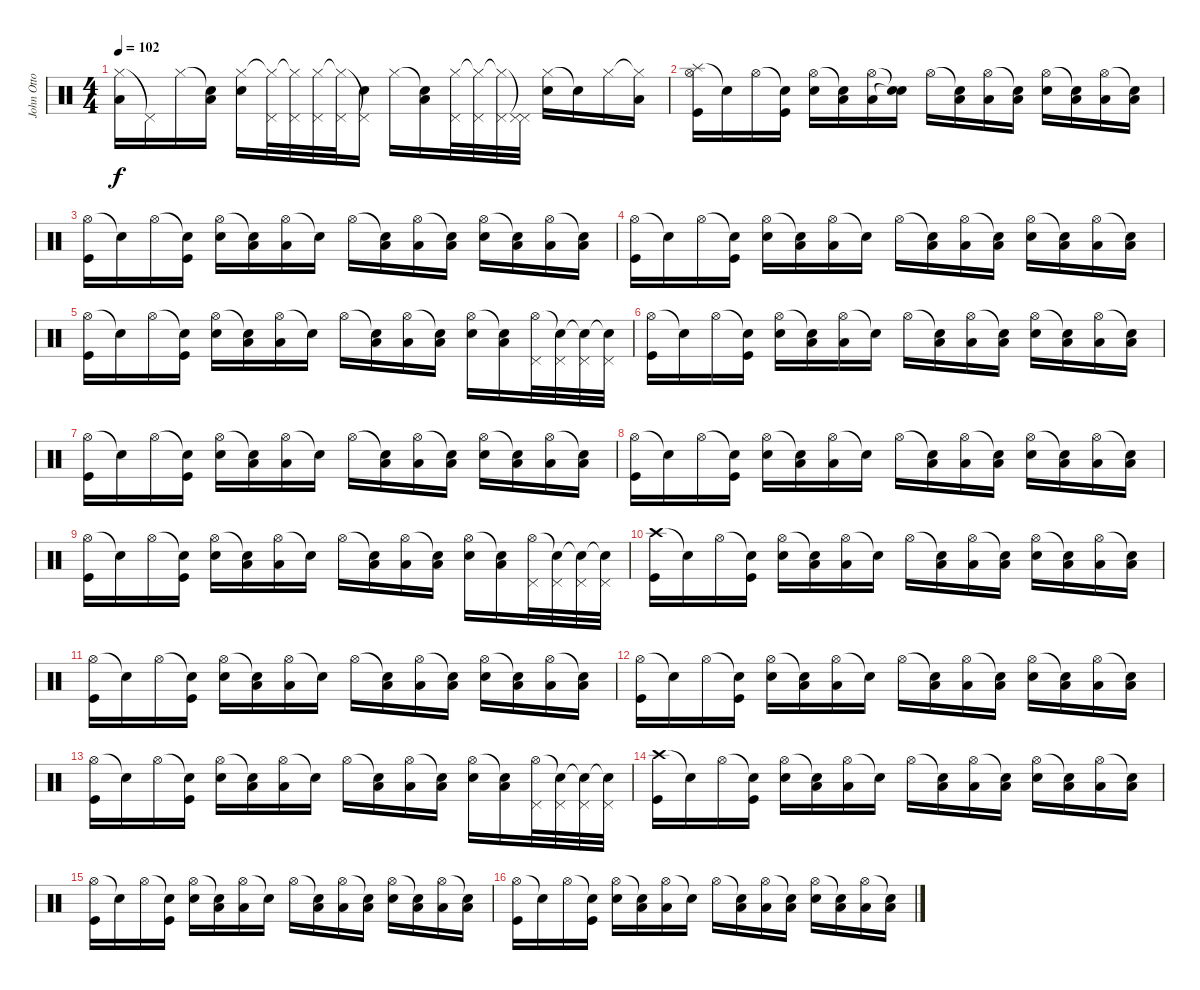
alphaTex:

\track ("John Otto (2nd Drums)" "John Otto ") {instrument percussion}
\staff {score}
\articulation defaults
\ts (4 4)
\tempo 102
\clef neutral
\ks c
("Hi-Hat (closed)" "Low Tom (hit)").16{dy f} "Pedal Hi-Hat (hit)"{t}.16 "Hi-Hat (closed)".16 ("Snare (hit)"{t} "Low Tom (hit)").16 ("Hi-Hat (closed)" "Snare (hit) 2").16 ("Hi-Hat (closed)"{t} "Pedal Hi-Hat (hit)").32 ("Hi-Hat (closed)"{t} "Pedal Hi-Hat (hit)").32 ("Hi-Hat (closed)" "Pedal Hi-Hat (hit)").32 ("Hi-Hat (closed)"{t} "Pedal Hi-Hat (hit)").32 ("Pedal Hi-Hat (hit)"{t} "Snare (hit) 2").16 "Hi-Hat (closed)".16 ("Snare (hit)"{t} "Low Tom (hit)").16 ("Hi-Hat (closed)" "Pedal Hi-Hat (hit)").32 ("Hi-Hat (closed)"{t} "Pedal Hi-Hat (hit)").32 ("Hi-Hat (closed)"{t} "Pedal Hi-Hat (hit)").32 ("Pedal Hi-Hat (hit)"{t} "Pedal Hi-Hat (hit)").32 ("Hi-Hat (closed)" "Snare (hit) 2").16 "Snare (hit)"{t}.16 "Hi-Hat (closed)".16 ("Hi-Hat (closed)"{t} "Low Tom (hit)").16 |
("Splash (hit)" "Hi-Hat (open)" "Kick (hit)").16 "Snare (hit)"{t}.16 "Hi-Hat (open)".16 ("Snare (hit)"{t} "Kick (hit)").16 ("Hi-Hat (open)" "Snare (hit) 2").16 ("Snare (hit)"{t} "Low Tom (hit)").16 ("Hi-Hat (open)" "Low Tom (hit)").16 ("Snare (hit)"{t} "Snare (hit)"{t}).16 "Hi-Hat (open)".16 ("Snare (hit)"{t} "Low Tom (hit)").16 ("Hi-Hat (open)" "Low Tom (hit)").16 ("Snare (hit)"{t} "Low Tom (hit)").16 ("Hi-Hat (open)" "Snare (hit) 2").16 ("Snare (hit)"{t} "Low Tom (hit)").16 ("Hi-Hat (open)" "Low Tom (hit)").16 ("Snare (hit)"{t} "Low Tom (hit)").16 |
("Hi-Hat (open)" "Kick (hit)").16 "Snare (hit)"{t}.16 "Hi-Hat (open)".16 ("Snare (hit)"{t} "Kick (hit)").16 ("Hi-Hat (open)" "Snare (hit) 2").16 ("Snare (hit)"{t} "Low Tom (hit)").16 ("Hi-Hat (open)" "Low Tom (hit)").16 "Snare (hit)"{t}.16 "Hi-Hat (open)".16 ("Snare (hit)"{t} "Low Tom (hit)").16 ("Hi-Hat (open)" "Low Tom (hit)").16 ("Snare (hit)"{t} "Low Tom (hit)").16 ("Hi-Hat (open)" "Snare (hit) 2").16 ("Snare (hit)"{t} "Low Tom (hit)").16 ("Hi-Hat (open)" "Low Tom (hit)").16 ("Snare (hit)"{t} "Low Tom (hit)").16 |
("Hi-Hat (open)" "Kick (hit)").16 "Snare (hit)"{t}.16 "Hi-Hat (open)".16 ("Snare (hit)"{t} "Kick (hit)").16 ("Hi-Hat (open)" "Snare (hit) 2").16 ("Snare (hit)"{t} "Low Tom (hit)").16 ("Hi-Hat (open)" "Low Tom (hit)").16 "Snare (hit)"{t}.16 "Hi-Hat (open)".16 ("Snare (hit)"{t} "Low Tom (hit)").16 ("Hi-Hat (open)" "Low Tom (hit)").16 ("Snare (hit)"{t} "Low Tom (hit)").16 ("Hi-Hat (open)" "Snare (hit) 2").16 ("Snare (hit)"{t} "Low Tom (hit)").16 ("Hi-Hat (open)" "Low Tom (hit)").16 ("Snare (hit)"{t} "Low Tom (hit)").16 |
("Hi-Hat (open)" "Kick (hit)").16 "Snare (hit)"{t}.16 "Hi-Hat (open)".16 ("Snare (hit)"{t} "Kick (hit)").16 ("Hi-Hat (open)" "Snare (hit) 2").16 ("Snare (hit)"{t} "Low Tom (hit)").16 ("Hi-Hat (open)" "Low Tom (hit)").16 "Snare (hit)"{t}.16 "Hi-Hat (open)".16 ("Snare (hit)"{t} "Low Tom (hit)").16 ("Hi-Hat (open)" "Low Tom (hit)").16 ("Snare (hit)"{t} "Low Tom (hit)").16 ("Hi-Hat (open)" "Snare (hit) 2").16 ("Snare (hit)"{t} "Low Tom (hit)").16 ("Hi-Hat (open)" "Pedal Hi-Hat (hit)").32 ("Snare (hit)"{t} "Pedal Hi-Hat (hit)").32 ("Snare (hit)"{t} "Pedal Hi-Hat (hit)").32 ("Snare (hit)"{t} "Pedal Hi-Hat (hit)").32 |
("Hi-Hat (open)" "Kick (hit)").16 "Snare (hit)"{t}.16 "Hi-Hat (open)".16 ("Snare (hit)"{t} "Kick (hit)").16 ("Hi-Hat (open)" "Snare (hit) 2").16 ("Snare (hit)"{t} "Low Tom (hit)").16 ("Hi-Hat (open)" "Low Tom (hit)").16 "Snare (hit)"{t}.16 "Hi-Hat (open)".16 ("Snare (hit)"{t} "Low Tom (hit)").16 ("Hi-Hat (open)" "Low Tom (hit)").16 ("Snare (hit)"{t} "Low Tom (hit)").16 ("Hi-Hat (open)" "Snare (hit) 2").16 ("Snare (hit)"{t} "Low Tom (hit)").16 ("Hi-Hat (open)" "Low Tom (hit)").16 ("Snare (hit)"{t} "Low Tom (hit)").16 |
("Hi-Hat (open)" "Kick (hit)").16 "Snare (hit)"{t}.16 "Hi-Hat (open)".16 ("Snare (hit)"{t} "Kick (hit)").16 ("Hi-Hat (open)" "Snare (hit) 2").16 ("Snare (hit)"{t} "Low Tom (hit)").16 ("Hi-Hat (open)" "Low Tom (hit)").16 "Snare (hit)"{t}.16 "Hi-Hat (open)".16 ("Snare (hit)"{t} "Low Tom (hit)").16 ("Hi-Hat (open)" "Low Tom (hit)").16 ("Snare (hit)"{t} "Low Tom (hit)").16 ("Hi-Hat (open)" "Snare (hit) 2").16 ("Snare (hit)"{t} "Low Tom (hit)").16 ("Hi-Hat (open)" "Low Tom (hit)").16 ("Snare (hit)"{t} "Low Tom (hit)").16 |
("Hi-Hat (open)" "Kick (hit)").16 "Snare (hit)"{t}.16 "Hi-Hat (open)".16 ("Snare (hit)"{t} "Kick (hit)").16 ("Hi-Hat (open)" "Snare (hit) 2").16 ("Snare (hit)"{t} "Low Tom (hit)").16 ("Hi-Hat (open)" "Low Tom (hit)").16 "Snare (hit)"{t}.16 "Hi-Hat (open)".16 ("Snare (hit)"{t} "Low Tom (hit)").16 ("Hi-Hat (open)" "Low Tom (hit)").16 ("Snare (hit)"{t} "Low Tom (hit)").16 ("Hi-Hat (open)" "Snare (hit) 2").16 ("Snare (hit)"{t} "Low Tom (hit)").16 ("Hi-Hat (open)" "Low Tom (hit)").16 ("Snare (hit)"{t} "Low Tom (hit)").16 |
("Hi-Hat (open)" "Kick (hit)").16 "Snare (hit)"{t}.16 "Hi-Hat (open)".16 ("Snare (hit)"{t} "Kick (hit)").16 ("Hi-Hat (open)" "Snare (hit) 2").16 ("Snare (hit)"{t} "Low Tom (hit)").16 ("Hi-Hat (open)" "Low Tom (hit)").16 "Snare (hit)"{t}.16 "Hi-Hat (open)".16 ("Snare (hit)"{t} "Low Tom (hit)").16 ("Hi-Hat (open)" "Low Tom (hit)").16 ("Snare (hit)"{t} "Low Tom (hit)").16 ("Hi-Hat (open)" "Snare (hit) 2").16 ("Snare (hit)"{t} "Low Tom (hit)").16 ("Hi-Hat (open)" "Pedal Hi-Hat (hit)").32 ("Snare (hit)"{t} "Pedal Hi-Hat (hit)").32 ("Snare (hit)"{t} "Pedal Hi-Hat (hit)").32 ("Snare (hit)"{t} "Pedal Hi-Hat (hit)").32 |
("Crash high (hit)" "Kick (hit)").16 "Snare (hit)"{t}.16 "Hi-Hat (open)".16 ("Snare (hit)"{t} "Kick (hit)").16 ("Hi-Hat (open)" "Snare (hit) 2").16 ("Snare (hit)"{t} "Low Tom (hit)").16 ("Hi-Hat (open)" "Low Tom (hit)").16 "Snare (hit)"{t}.16 "Hi-Hat (open)".16 ("Snare (hit)"{t} "Low Tom (hit)").16 ("Hi-Hat (open)" "Low Tom (hit)").16 ("Snare (hit)"{t} "Low Tom (hit)").16 ("Hi-Hat (open)" "Snare (hit) 2").16 ("Snare (hit)"{t} "Low Tom (hit)").16 ("Hi-Hat (open)" "Low Tom (hit)").16 ("Snare (hit)"{t} "Low Tom (hit)").16 |
("Hi-Hat (open)" "Kick (hit)").16 "Snare (hit)"{t}.16 "Hi-Hat (open)".16 ("Snare (hit)"{t} "Kick (hit)").16 ("Hi-Hat (open)" "Snare (hit) 2").16 ("Snare (hit)"{t} "Low Tom (hit)").16 ("Hi-Hat (open)" "Low Tom (hit)").16 "Snare (hit)"{t}.16 "Hi-Hat (open)".16 ("Snare (hit)"{t} "Low Tom (hit)").16 ("Hi-Hat (open)" "Low Tom (hit)").16 ("Snare (hit)"{t} "Low Tom (hit)").16 ("Hi-Hat (open)" "Snare (hit) 2").16 ("Snare (hit)"{t} "Low Tom (hit)").16 ("Hi-Hat (open)" "Low Tom (hit)").16 ("Snare (hit)"{t} "Low Tom (hit)").16 |
("Hi-Hat (open)" "Kick (hit)").16 "Snare (hit)"{t}.16 "Hi-Hat (open)".16 ("Snare (hit)"{t} "Kick (hit)").16 ("Hi-Hat (open)" "Snare (hit) 2").16 ("Snare (hit)"{t} "Low Tom (hit)").16 ("Hi-Hat (open)" "Low Tom (hit)").16 "Snare (hit)"{t}.16 "Hi-Hat (open)".16 ("Snare (hit)"{t} "Low Tom (hit)").16 ("Hi-Hat (open)" "Low Tom (hit)").16 ("Snare (hit)"{t} "Low Tom (hit)").16 ("Hi-Hat (open)" "Snare (hit) 2").16 ("Snare (hit)"{t} "Low Tom (hit)").16 ("Hi-Hat (open)" "Low Tom (hit)").16 ("Snare (hit)"{t} "Low Tom (hit)").16 |
("Hi-Hat (open)" "Kick (hit)").16 "Snare (hit)"{t}.16 "Hi-Hat (open)".16 ("Snare (hit)"{t} "Kick (hit)").16 ("Hi-Hat (open)" "Snare (hit) 2").16 ("Snare (hit)"{t} "Low Tom (hit)").16 ("Hi-Hat (open)" "Low Tom (hit)").16 "Snare (hit)"{t}.16 "Hi-Hat (open)".16 ("Snare (hit)"{t} "Low Tom (hit)").16 ("Hi-Hat (open)" "Low Tom (hit)").16 ("Snare (hit)"{t} "Low Tom (hit)").16 ("Hi-Hat (open)" "Snare (hit) 2").16 ("Snare (hit)"{t} "Low Tom (hit)").16 ("Hi-Hat (open)" "Pedal Hi-Hat (hit)").32 ("Snare (hit)"{t} "Pedal Hi-Hat (hit)").32 ("Snare (hit)"{t} "Pedal Hi-Hat (hit)").32 ("Snare (hit)"{t} "Pedal Hi-Hat (hit)").32 |
("Crash high (hit)" "Kick (hit)").16 "Snare (hit)"{t}.16 "Hi-Hat (open)".16 ("Snare (hit)"{t} "Kick (hit)").16 ("Hi-Hat (open)" "Snare (hit) 2").16 ("Snare (hit)"{t} "Low Tom (hit)").16 ("Hi-Hat (open)" "Low Tom (hit)").16 "Snare (hit)"{t}.16 "Hi-Hat (open)".16 ("Snare (hit)"{t} "Low Tom (hit)").16 ("Hi-Hat (open)" "Low Tom (hit)").16 ("Snare (hit)"{t} "Low Tom (hit)").16 ("Hi-Hat (open)" "Snare (hit) 2").16 ("Snare (hit)"{t} "Low Tom (hit)").16 ("Hi-Hat (open)" "Low Tom (hit)").16 ("Snare (hit)"{t} "Low Tom (hit)").16 |
("Hi-Hat (open)" "Kick (hit)").16 "Snare (hit)"{t}.16 "Hi-Hat (open)".16 ("Snare (hit)"{t} "Kick (hit)").16 ("Hi-Hat (open)" "Snare (hit) 2").16 ("Snare (hit)"{t} "Low Tom (hit)").16 ("Hi-Hat (open)" "Low Tom (hit)").16 "Snare (hit)"{t}.16 "Hi-Hat (open)".16 ("Snare (hit)"{t} "Low Tom (hit)").16 ("Hi-Hat (open)" "Low Tom (hit)").16 ("Snare (hit)"{t} "Low Tom (hit)").16 ("Hi-Hat (open)" "Snare (hit) 2").16 ("Snare (hit)"{t} "Low Tom (hit)").16 ("Hi-Hat (open)" "Low Tom (hit)").16 ("Snare (hit)"{t} "Low Tom (hit)").16 |
("Hi-Hat (open)" "Kick (hit)").16 "Snare (hit)"{t}.16 "Hi-Hat (open)".16 ("Snare (hit)"{t} "Kick (hit)").16 ("Hi-Hat (open)" "Snare (hit) 2").16 ("Snare (hit)"{t} "Low Tom (hit)").16 ("Hi-Hat (open)" "Low Tom (hit)").16 "Snare (hit)"{t}.16 "Hi-Hat (open)".16 ("Snare (hit)"{t} "Low Tom (hit)").16 ("Hi-Hat (open)" "Low Tom (hit)").16 ("Snare (hit)"{t} "Low Tom (hit)").16 ("Hi-Hat (open)" "Snare (hit) 2").16 ("Snare (hit)"{t} "Low Tom (hit)").16 ("Hi-Hat (open)" "Low Tom (hit)").16 ("Snare (hit)"{t} "Low Tom (hit)").16
